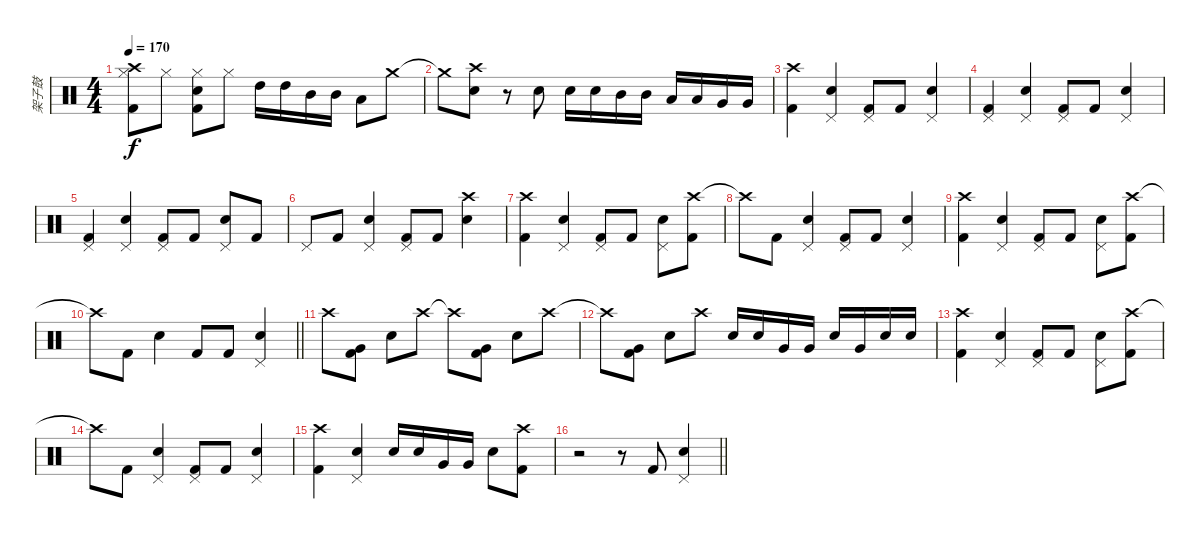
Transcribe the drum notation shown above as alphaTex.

\track ("架子鼓" "架子鼓") {instrument percussion}
\staff {score}
\articulation defaults
\ts (4 4)
\tempo 170
\clef neutral
\ks c
("Hi-Hat (closed)" "Crash high (hit)" "Kick (hit) 2").8{dy f} "Hi-Hat (closed)".8 ("Hi-Hat (closed)" "Snare (hit) 2" "Kick (hit) 2").8 "Hi-Hat (closed)".8 "High Tom (hit)".16 "High Tom (hit)".16 "Mid Tom (hit)".16 "Mid Tom (hit)".16 "Low Tom (hit)".8 "Crash medium (hit)".8 |
"Crash medium (hit)"{t}.8 ("Crash high (hit)" "Snare (hit) 2").8 r.8 "Snare (hit) 2".8 "Snare (hit) 2".16 "Snare (hit) 2".16 "Mid Tom (hit)".16 "Mid Tom (hit)".16 "Low Tom (hit)".16 "Low Tom (hit)".16 "Very Low Tom (hit)".16 "Very Low Tom (hit)".16 |
("Crash high (hit)" "Kick (hit) 2").4 ("Pedal Hi-Hat (hit)" "Snare (hit) 2").4 ("Pedal Hi-Hat (hit)" "Kick (hit) 2").8 "Kick (hit) 2".8 ("Pedal Hi-Hat (hit)" "Snare (hit) 2").4 |
("Pedal Hi-Hat (hit)" "Kick (hit) 2").4 ("Pedal Hi-Hat (hit)" "Snare (hit) 2").4 ("Pedal Hi-Hat (hit)" "Kick (hit) 2").8 "Kick (hit) 2".8 ("Pedal Hi-Hat (hit)" "Snare (hit) 2").4 |
("Pedal Hi-Hat (hit)" "Kick (hit) 2").4 ("Pedal Hi-Hat (hit)" "Snare (hit) 2").4 ("Pedal Hi-Hat (hit)" "Kick (hit) 2").8 "Kick (hit) 2".8 ("Pedal Hi-Hat (hit)" "Snare (hit) 2").8 "Kick (hit) 2".8 |
"Pedal Hi-Hat (hit)".8 "Kick (hit) 2".8 ("Pedal Hi-Hat (hit)" "Snare (hit) 2").4 ("Pedal Hi-Hat (hit)" "Kick (hit) 2").8 "Kick (hit) 2".8 ("Crash high (hit)" "Snare (hit) 2").4 |
("Crash high (hit)" "Kick (hit) 2").4 ("Pedal Hi-Hat (hit)" "Snare (hit) 2").4 ("Pedal Hi-Hat (hit)" "Kick (hit) 2").8 "Kick (hit) 2".8 ("Pedal Hi-Hat (hit)" "Snare (hit) 2").8 ("Crash high (hit)" "Kick (hit) 2").8 |
"Crash high (hit)"{t}.8 "Kick (hit) 2".8 ("Pedal Hi-Hat (hit)" "Snare (hit) 2").4 ("Pedal Hi-Hat (hit)" "Kick (hit) 2").8 "Kick (hit) 2".8 ("Pedal Hi-Hat (hit)" "Snare (hit) 2").4 |
("Crash high (hit)" "Kick (hit) 2").4 ("Pedal Hi-Hat (hit)" "Snare (hit) 2").4 ("Pedal Hi-Hat (hit)" "Kick (hit) 2").8 "Kick (hit) 2".8 ("Pedal Hi-Hat (hit)" "Snare (hit) 2").8 ("Crash high (hit)" "Kick (hit) 2").8 |
\barLineRight lightlight "Crash high (hit)"{t}.8 "Kick (hit) 2".8 "Snare (hit) 2".4 "Kick (hit) 2".8 "Kick (hit) 2".8
("Pedal Hi-Hat (hit)" "Snare (hit) 2").4 |
"Crash high (hit)".8 ("Very Low Tom (hit)" "Kick (hit) 2").8 "Snare (hit) 2".8 "Crash high (hit)".8 "Crash high (hit)"{t}.8 ("Very Low Tom (hit)" "Kick (hit) 2").8 "Snare (hit) 2".8 "Crash high (hit)".8 |
"Crash high (hit)"{t}.8 ("Very Low Tom (hit)" "Kick (hit) 2").8 "Snare (hit) 2".8 "Crash high (hit)".8 "Snare (hit) 2".16 "Snare (hit) 2".16 "Very Low Tom (hit)".16 "Very Low Tom (hit)".16 "Snare (hit) 2".16 "Very Low Tom (hit)".16 "Snare (hit) 2".16 "Snare (hit) 2".16 |
("Crash high (hit)" "Kick (hit) 2").4 ("Pedal Hi-Hat (hit)" "Snare (hit) 2").4 ("Pedal Hi-Hat (hit)" "Kick (hit) 2").8 "Kick (hit) 2".8 ("Pedal Hi-Hat (hit)" "Snare (hit) 2").8 ("Crash high (hit)" "Kick (hit) 2").8 |
"Crash high (hit)"{t}.8 "Kick (hit) 2".8 ("Pedal Hi-Hat (hit)" "Snare (hit) 2").4 ("Pedal Hi-Hat (hit)" "Kick (hit) 2").8 "Kick (hit) 2".8 ("Pedal Hi-Hat (hit)" "Snare (hit) 2").4 |
("Crash high (hit)" "Kick (hit) 2").4 ("Pedal Hi-Hat (hit)" "Snare (hit) 2").4 "Snare (hit) 2".16 "Snare (hit) 2".16 "Very Low Tom (hit)".16 "Very Low Tom (hit)".16 "Snare (hit) 2".8 ("Crash high (hit)" "Kick (hit) 2").8 |
\barLineRight lightlight
r.2 r.8 "Kick (hit) 2".8 ("Pedal Hi-Hat (hit)" "Snare (hit) 2").4
